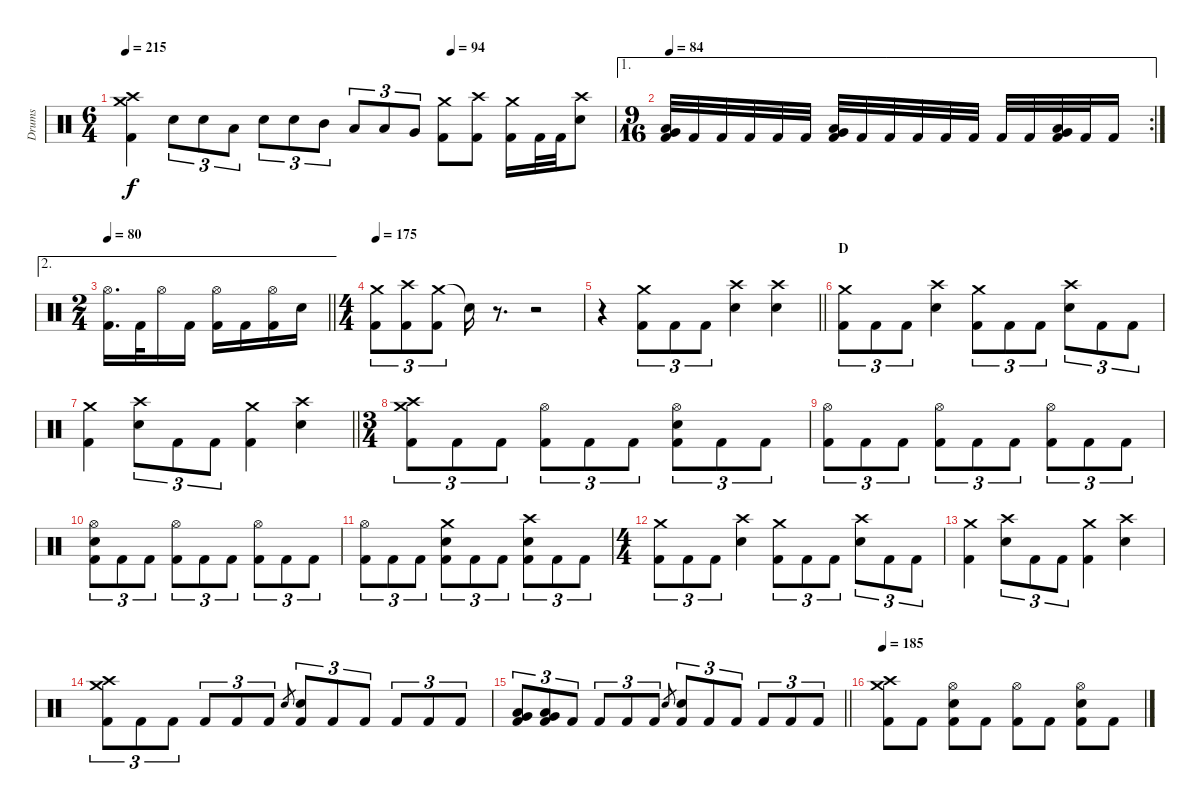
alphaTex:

\track ("Drums" "Drums") {instrument percussion}
\staff {score}
\articulation defaults
\ts (6 4)
\tempo 215
\tempo (94 0.6666666666666666)
\clef neutral
\ks c
("Crash medium (hit)" "Crash high (hit)" "Kick (hit) 2").4{dy f} "Electric Snare (hit)".8{tu (3 2)} "Electric Snare (hit)".8{tu (3 2)} "Low Tom (hit)".8{tu (3 2)} "Electric Snare (hit)".8{tu (3 2)} "Electric Snare (hit)".8{tu (3 2)} "Mid Tom (hit)".8{tu (3 2)} "Low Tom (hit)".8{tu (3 2)} "Low Tom (hit)".8{tu (3 2)} "Very Low Tom (hit)".8{tu (3 2)} ("Crash medium (hit)" "Kick (hit) 2").8 ("Crash high (hit)" "Kick (hit) 2").8 ("Crash medium (hit)" "Kick (hit) 2").16 "Kick (hit) 2".32 "Kick (hit) 2".32 ("Crash high (hit)" "Electric Snare (hit)").8 |
\ae 1
\rc 2
\ts (9 16)
\tempo 84
("Very Low Tom (hit)" "Low Floor Tom (hit)" "Kick (hit) 2").32 "Kick (hit) 2".32 "Kick (hit) 2".32 "Kick (hit) 2".32 "Kick (hit) 2".32 "Kick (hit) 2".32 ("Very Low Tom (hit)" "Low Floor Tom (hit)" "Kick (hit) 2").32 "Kick (hit) 2".32 "Kick (hit) 2".32 "Kick (hit) 2".32 "Kick (hit) 2".32 "Kick (hit) 2".32 "Kick (hit) 2".32 "Kick (hit) 2".32 ("Very Low Tom (hit)" "Low Floor Tom (hit)" "Kick (hit) 2").32 "Kick (hit) 2".32 "Kick (hit) 2".16 |
\ae 2
\ts (2 4)
\tempo 80
\barLineRight lightlight
("Hi-Hat (open)" "Kick (hit) 2").16{d} "Kick (hit) 2".32 "Hi-Hat (open)".16 "Kick (hit) 2".16 ("Hi-Hat (open)" "Kick (hit) 2").16 "Kick (hit) 2".16 ("Hi-Hat (open)" "Kick (hit) 2").16 "Electric Snare (hit)".16 |
\ts (4 4)
\section ("" "")
\tempo 175
("Crash medium (hit)" "Kick (hit) 2").8{tu (3 2)} ("Crash high (hit)" "Kick (hit) 2").8{tu (3 2)} ("Crash medium (hit)" "Kick (hit) 2").8{tu (3 2)} "Snare (hit)"{t}.16 r.8{d volume 0} r.2 |
\barLineRight lightlight
r.4 ("Crash medium (hit)" "Kick (hit) 2").8{tu (3 2) volume 14} "Kick (hit) 2".8{tu (3 2)} "Kick (hit) 2".8{tu (3 2)} ("Crash high (hit)" "Electric Snare (hit)").4 ("Crash high (hit)" "Electric Snare (hit)").4 |
\section ("" "D")
("Crash medium (hit)" "Kick (hit) 2").8{tu (3 2)} "Kick (hit) 2".8{tu (3 2)} "Kick (hit) 2".8{tu (3 2)} ("Crash high (hit)" "Electric Snare (hit)").4 ("Crash medium (hit)" "Kick (hit) 2").8{tu (3 2)} "Kick (hit) 2".8{tu (3 2)} "Kick (hit) 2".8{tu (3 2)} ("Crash high (hit)" "Electric Snare (hit)").8{tu (3 2)} "Kick (hit) 2".8{tu (3 2)} "Kick (hit) 2".8{tu (3 2)} |
\barLineRight lightlight
("Crash medium (hit)" "Kick (hit) 2").4 ("Crash high (hit)" "Electric Snare (hit)").8{tu (3 2)} "Kick (hit) 2".8{tu (3 2)} "Kick (hit) 2".8{tu (3 2)} ("Crash medium (hit)" "Kick (hit) 2").4 ("Crash high (hit)" "Electric Snare (hit)").4 |
\ts (3 4)
("Crash medium (hit)" "Crash high (hit)" "Kick (hit) 2").8{tu (3 2)} "Kick (hit) 2".8{tu (3 2)} "Kick (hit) 2".8{tu (3 2)} ("Hi-Hat (open)" "Kick (hit) 2").8{tu (3 2)} "Kick (hit) 2".8{tu (3 2)} "Kick (hit) 2".8{tu (3 2)} ("Hi-Hat (open)" "Electric Snare (hit)" "Kick (hit) 2").8{tu (3 2)} "Kick (hit) 2".8{tu (3 2)} "Kick (hit) 2".8{tu (3 2)} |
("Hi-Hat (open)" "Kick (hit) 2").8{tu (3 2)} "Kick (hit) 2".8{tu (3 2)} "Kick (hit) 2".8{tu (3 2)} ("Hi-Hat (open)" "Kick (hit) 2").8{tu (3 2)} "Kick (hit) 2".8{tu (3 2)} "Kick (hit) 2".8{tu (3 2)} ("Hi-Hat (open)" "Kick (hit) 2").8{tu (3 2)} "Kick (hit) 2".8{tu (3 2)} "Kick (hit) 2".8{tu (3 2)} |
("Hi-Hat (open)" "Electric Snare (hit)" "Kick (hit) 2").8{tu (3 2)} "Kick (hit) 2".8{tu (3 2)} "Kick (hit) 2".8{tu (3 2)} ("Hi-Hat (open)" "Kick (hit) 2").8{tu (3 2)} "Kick (hit) 2".8{tu (3 2)} "Kick (hit) 2".8{tu (3 2)} ("Hi-Hat (open)" "Kick (hit) 2").8{tu (3 2)} "Kick (hit) 2".8{tu (3 2)} "Kick (hit) 2".8{tu (3 2)} |
("Hi-Hat (open)" "Kick (hit) 2").8{tu (3 2)} "Kick (hit) 2".8{tu (3 2)} "Kick (hit) 2".8{tu (3 2)} ("Crash medium (hit)" "Electric Snare (hit)" "Kick (hit) 2").8{tu (3 2)} "Kick (hit) 2".8{tu (3 2)} "Kick (hit) 2".8{tu (3 2)} ("Crash high (hit)" "Electric Snare (hit)" "Kick (hit) 2").8{tu (3 2)} "Kick (hit) 2".8{tu (3 2)} "Kick (hit) 2".8{tu (3 2)} |
\ts (4 4)
("Crash medium (hit)" "Kick (hit) 2").8{tu (3 2)} "Kick (hit) 2".8{tu (3 2)} "Kick (hit) 2".8{tu (3 2)} ("Crash high (hit)" "Electric Snare (hit)").4 ("Crash medium (hit)" "Kick (hit) 2").8{tu (3 2)} "Kick (hit) 2".8{tu (3 2)} "Kick (hit) 2".8{tu (3 2)} ("Crash high (hit)" "Electric Snare (hit)").8{tu (3 2)} "Kick (hit) 2".8{tu (3 2)} "Kick (hit) 2".8{tu (3 2)} |
("Crash medium (hit)" "Kick (hit) 2").4 ("Crash high (hit)" "Electric Snare (hit)").8{tu (3 2)} "Kick (hit) 2".8{tu (3 2)} "Kick (hit) 2".8{tu (3 2)} ("Crash medium (hit)" "Kick (hit) 2").4 ("Crash high (hit)" "Electric Snare (hit)").4 |
("Crash medium (hit)" "Crash high (hit)" "Kick (hit) 2").8{tu (3 2)} "Kick (hit) 2".8{tu (3 2)} "Kick (hit) 2".8{tu (3 2)} "Kick (hit) 2".8{tu (3 2)} "Kick (hit) 2".8{tu (3 2)} "Kick (hit) 2".8{tu (3 2)} "Electric Snare (hit)".8{gr} ("Electric Snare (hit)" "Kick (hit) 2").8{tu (3 2)} "Kick (hit) 2".8{tu (3 2)} "Kick (hit) 2".8{tu (3 2)} "Kick (hit) 2".8{tu (3 2)} "Kick (hit) 2".8{tu (3 2)} "Kick (hit) 2".8{tu (3 2)} |
\barLineRight lightlight
("Low Tom (hit)" "Very Low Tom (hit)" "Kick (hit) 2").8{tu (3 2)} ("Low Tom (hit)" "Very Low Tom (hit)" "Kick (hit) 2").8{tu (3 2)} "Kick (hit) 2".8{tu (3 2)} "Kick (hit) 2".8{tu (3 2)} "Kick (hit) 2".8{tu (3 2)} "Kick (hit) 2".8{tu (3 2)} "Electric Snare (hit)".8{gr} ("Electric Snare (hit)" "Kick (hit) 2").8{tu (3 2)} "Kick (hit) 2".8{tu (3 2)} "Kick (hit) 2".8{tu (3 2)} "Kick (hit) 2".8{tu (3 2)} "Kick (hit) 2".8{tu (3 2)} "Kick (hit) 2".8{tu (3 2)} |
\section ("" "")
\tempo 185
("Crash medium (hit)" "Crash high (hit)" "Kick (hit) 2").8 "Kick (hit) 2".8 ("Hi-Hat (open)" "Electric Snare (hit)" "Kick (hit) 2").8 "Kick (hit) 2".8 ("Hi-Hat (open)" "Kick (hit) 2").8 "Kick (hit) 2".8 ("Hi-Hat (open)" "Electric Snare (hit)" "Kick (hit) 2").8 "Kick (hit) 2".8
